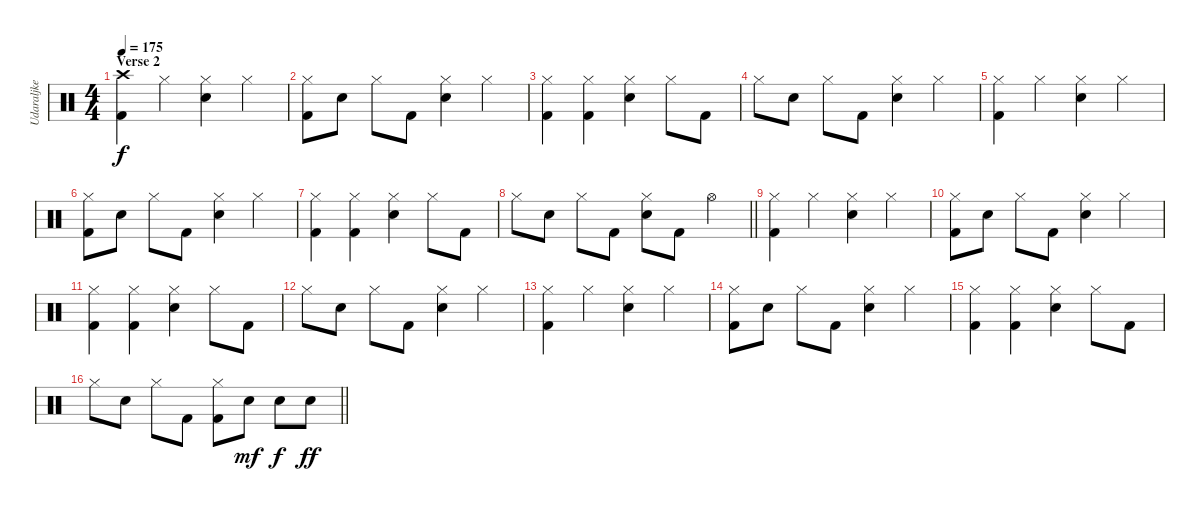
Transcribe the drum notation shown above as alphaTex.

\track ("Udaraljke" "Udaraljke") {instrument percussion}
\staff {score}
\articulation defaults
\ts (4 4)
\section ("" "Verse 2")
\tempo 175
\clef neutral
\ks c
("Crash high (hit)" "Kick (hit) 2").4{dy f} "Hi-Hat (closed)".4 ("Hi-Hat (closed)" "Electric Snare (hit)").4 "Hi-Hat (closed)".4 |
("Hi-Hat (closed)" "Kick (hit) 2").8 "Electric Snare (hit)".8 "Hi-Hat (closed)".8 "Kick (hit) 2".8 ("Hi-Hat (closed)" "Electric Snare (hit)").4 "Hi-Hat (closed)".4 |
("Hi-Hat (closed)" "Kick (hit) 2").4 ("Hi-Hat (closed)" "Kick (hit) 2").4 ("Hi-Hat (closed)" "Electric Snare (hit)").4 "Hi-Hat (closed)".8 "Kick (hit) 2".8 |
"Hi-Hat (closed)".8 "Electric Snare (hit)".8 "Hi-Hat (closed)".8 "Kick (hit) 2".8 ("Hi-Hat (closed)" "Electric Snare (hit)").4 "Hi-Hat (closed)".4 |
("Hi-Hat (closed)" "Kick (hit) 2").4 "Hi-Hat (closed)".4 ("Hi-Hat (closed)" "Electric Snare (hit)").4 "Hi-Hat (closed)".4 |
("Hi-Hat (closed)" "Kick (hit) 2").8 "Electric Snare (hit)".8 "Hi-Hat (closed)".8 "Kick (hit) 2".8 ("Hi-Hat (closed)" "Electric Snare (hit)").4 "Hi-Hat (closed)".4 |
("Hi-Hat (closed)" "Kick (hit) 2").4 ("Hi-Hat (closed)" "Kick (hit) 2").4 ("Hi-Hat (closed)" "Electric Snare (hit)").4 "Hi-Hat (closed)".8 "Kick (hit) 2".8 |
\barLineRight lightlight "Hi-Hat (closed)".8 "Electric Snare (hit)".8 "Hi-Hat (closed)".8 "Kick (hit) 2".8
("Hi-Hat (closed)" "Electric Snare (hit)").8 "Kick (hit) 2".8 "Hi-Hat (open)".4 |
("Hi-Hat (closed)" "Kick (hit) 2").4 "Hi-Hat (closed)".4 ("Hi-Hat (closed)" "Electric Snare (hit)").4 "Hi-Hat (closed)".4 |
("Hi-Hat (closed)" "Kick (hit) 2").8 "Electric Snare (hit)".8 "Hi-Hat (closed)".8 "Kick (hit) 2".8 ("Hi-Hat (closed)" "Electric Snare (hit)").4 "Hi-Hat (closed)".4 |
("Hi-Hat (closed)" "Kick (hit) 2").4 ("Hi-Hat (closed)" "Kick (hit) 2").4 ("Hi-Hat (closed)" "Electric Snare (hit)").4 "Hi-Hat (closed)".8 "Kick (hit) 2".8 |
"Hi-Hat (closed)".8 "Electric Snare (hit)".8 "Hi-Hat (closed)".8 "Kick (hit) 2".8 ("Hi-Hat (closed)" "Electric Snare (hit)").4 "Hi-Hat (closed)".4 |
("Hi-Hat (closed)" "Kick (hit) 2").4 "Hi-Hat (closed)".4 ("Hi-Hat (closed)" "Electric Snare (hit)").4 "Hi-Hat (closed)".4 |
("Hi-Hat (closed)" "Kick (hit) 2").8 "Electric Snare (hit)".8 "Hi-Hat (closed)".8 "Kick (hit) 2".8 ("Hi-Hat (closed)" "Electric Snare (hit)").4 "Hi-Hat (closed)".4 |
("Hi-Hat (closed)" "Kick (hit) 2").4 ("Hi-Hat (closed)" "Kick (hit) 2").4 ("Hi-Hat (closed)" "Electric Snare (hit)").4 "Hi-Hat (closed)".8 "Kick (hit) 2".8 |
\barLineRight lightlight "Hi-Hat (closed)".8 "Electric Snare (hit)".8 "Hi-Hat (closed)".8 "Kick (hit) 2".8
("Hi-Hat (closed)" "Kick (hit) 2").8 "Electric Snare (hit)".8{dy mf} "Electric Snare (hit)".8{dy f} "Electric Snare (hit)".8{dy ff}
